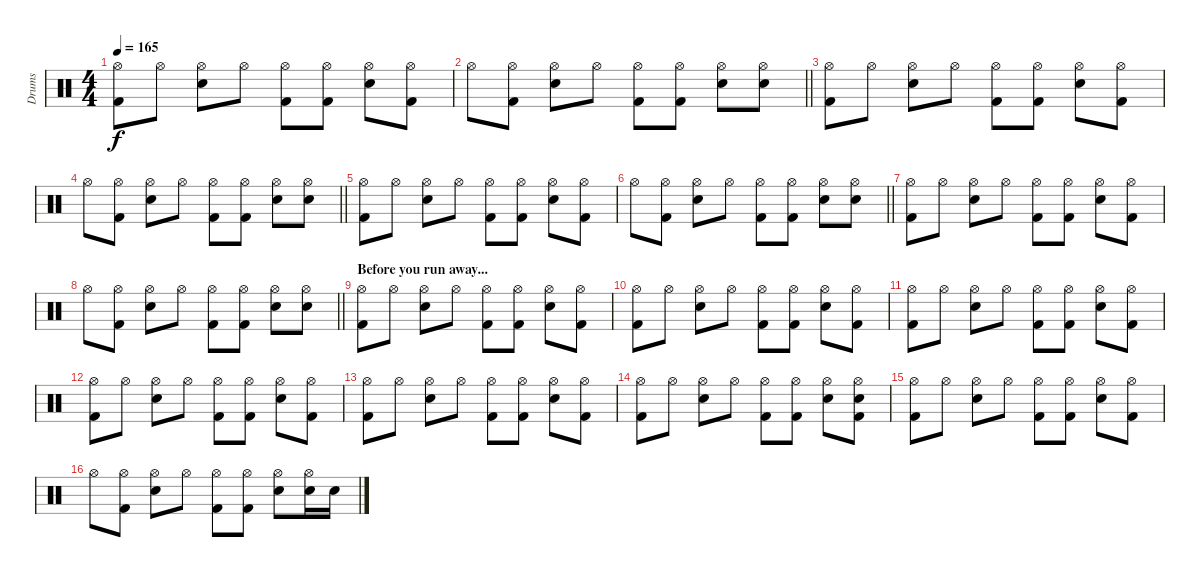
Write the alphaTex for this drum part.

\track ("Drums" "Drums") {instrument percussion}
\staff {score}
\articulation defaults
\ts (4 4)
\tempo 165
\clef neutral
\ks c
("Hi-Hat (open)" "Kick (hit) 2").8{dy f} "Hi-Hat (open)".8 ("Hi-Hat (open)" "Electric Snare (hit)").8 "Hi-Hat (open)".8 ("Hi-Hat (open)" "Kick (hit) 2").8 ("Hi-Hat (open)" "Kick (hit) 2").8 ("Hi-Hat (open)" "Electric Snare (hit)").8 ("Hi-Hat (open)" "Kick (hit) 2").8 |
\barLineRight lightlight "Hi-Hat (open)".8
("Hi-Hat (open)" "Kick (hit) 2").8 ("Hi-Hat (open)" "Electric Snare (hit)").8 "Hi-Hat (open)".8 ("Hi-Hat (open)" "Kick (hit) 2").8 ("Hi-Hat (open)" "Kick (hit) 2").8 ("Hi-Hat (open)" "Electric Snare (hit)").8 ("Hi-Hat (open)" "Electric Snare (hit)").8 |
("Hi-Hat (open)" "Kick (hit) 2").8 "Hi-Hat (open)".8 ("Hi-Hat (open)" "Electric Snare (hit)").8 "Hi-Hat (open)".8 ("Hi-Hat (open)" "Kick (hit) 2").8 ("Hi-Hat (open)" "Kick (hit) 2").8 ("Hi-Hat (open)" "Electric Snare (hit)").8 ("Hi-Hat (open)" "Kick (hit) 2").8 |
\barLineRight lightlight "Hi-Hat (open)".8
("Hi-Hat (open)" "Kick (hit) 2").8 ("Hi-Hat (open)" "Electric Snare (hit)").8 "Hi-Hat (open)".8 ("Hi-Hat (open)" "Kick (hit) 2").8 ("Hi-Hat (open)" "Kick (hit) 2").8 ("Hi-Hat (open)" "Electric Snare (hit)").8 ("Hi-Hat (open)" "Electric Snare (hit)").8 |
("Hi-Hat (open)" "Kick (hit) 2").8 "Hi-Hat (open)".8 ("Hi-Hat (open)" "Electric Snare (hit)").8 "Hi-Hat (open)".8 ("Hi-Hat (open)" "Kick (hit) 2").8 ("Hi-Hat (open)" "Kick (hit) 2").8 ("Hi-Hat (open)" "Electric Snare (hit)").8 ("Hi-Hat (open)" "Kick (hit) 2").8 |
\barLineRight lightlight "Hi-Hat (open)".8
("Hi-Hat (open)" "Kick (hit) 2").8 ("Hi-Hat (open)" "Electric Snare (hit)").8 "Hi-Hat (open)".8 ("Hi-Hat (open)" "Kick (hit) 2").8 ("Hi-Hat (open)" "Kick (hit) 2").8 ("Hi-Hat (open)" "Electric Snare (hit)").8 ("Hi-Hat (open)" "Electric Snare (hit)").8 |
("Hi-Hat (open)" "Kick (hit) 2").8 "Hi-Hat (open)".8 ("Hi-Hat (open)" "Electric Snare (hit)").8 "Hi-Hat (open)".8 ("Hi-Hat (open)" "Kick (hit) 2").8 ("Hi-Hat (open)" "Kick (hit) 2").8 ("Hi-Hat (open)" "Electric Snare (hit)").8 ("Hi-Hat (open)" "Kick (hit) 2").8 |
\barLineRight lightlight "Hi-Hat (open)".8
("Hi-Hat (open)" "Kick (hit) 2").8 ("Hi-Hat (open)" "Electric Snare (hit)").8 "Hi-Hat (open)".8 ("Hi-Hat (open)" "Kick (hit) 2").8 ("Hi-Hat (open)" "Kick (hit) 2").8 ("Hi-Hat (open)" "Electric Snare (hit)").8 ("Hi-Hat (open)" "Electric Snare (hit)").8 |
\section ("" "Before you run away...")
("Hi-Hat (open)" "Kick (hit) 2").8 "Hi-Hat (open)".8 ("Hi-Hat (open)" "Electric Snare (hit)").8 "Hi-Hat (open)".8 ("Hi-Hat (open)" "Kick (hit) 2").8 ("Hi-Hat (open)" "Kick (hit) 2").8 ("Hi-Hat (open)" "Electric Snare (hit)").8 ("Hi-Hat (open)" "Kick (hit) 2").8 |
("Hi-Hat (open)" "Kick (hit) 2").8 "Hi-Hat (open)".8 ("Hi-Hat (open)" "Electric Snare (hit)").8 "Hi-Hat (open)".8 ("Hi-Hat (open)" "Kick (hit) 2").8 ("Hi-Hat (open)" "Kick (hit) 2").8 ("Hi-Hat (open)" "Electric Snare (hit)").8 ("Hi-Hat (open)" "Kick (hit) 2").8 |
("Hi-Hat (open)" "Kick (hit) 2").8 "Hi-Hat (open)".8 ("Hi-Hat (open)" "Electric Snare (hit)").8 "Hi-Hat (open)".8 ("Hi-Hat (open)" "Kick (hit) 2").8 ("Hi-Hat (open)" "Kick (hit) 2").8 ("Hi-Hat (open)" "Electric Snare (hit)").8 ("Hi-Hat (open)" "Kick (hit) 2").8 |
("Hi-Hat (open)" "Kick (hit) 2").8 "Hi-Hat (open)".8 ("Hi-Hat (open)" "Electric Snare (hit)").8 "Hi-Hat (open)".8 ("Hi-Hat (open)" "Kick (hit) 2").8 ("Hi-Hat (open)" "Kick (hit) 2").8 ("Hi-Hat (open)" "Electric Snare (hit)").8 ("Hi-Hat (open)" "Kick (hit) 2").8 |
("Hi-Hat (open)" "Kick (hit) 2").8 "Hi-Hat (open)".8 ("Hi-Hat (open)" "Electric Snare (hit)").8 "Hi-Hat (open)".8 ("Hi-Hat (open)" "Kick (hit) 2").8 ("Hi-Hat (open)" "Kick (hit) 2").8 ("Hi-Hat (open)" "Electric Snare (hit)").8 ("Hi-Hat (open)" "Kick (hit) 2").8 |
("Hi-Hat (open)" "Kick (hit) 2").8 "Hi-Hat (open)".8 ("Hi-Hat (open)" "Electric Snare (hit)").8 "Hi-Hat (open)".8 ("Hi-Hat (open)" "Kick (hit) 2").8 ("Hi-Hat (open)" "Kick (hit) 2").8 ("Hi-Hat (open)" "Electric Snare (hit)").8 ("Hi-Hat (open)" "Electric Snare (hit)" "Kick (hit) 2").8 |
("Hi-Hat (open)" "Kick (hit) 2").8 "Hi-Hat (open)".8 ("Hi-Hat (open)" "Electric Snare (hit)").8 "Hi-Hat (open)".8 ("Hi-Hat (open)" "Kick (hit) 2").8 ("Hi-Hat (open)" "Kick (hit) 2").8 ("Hi-Hat (open)" "Electric Snare (hit)").8 ("Hi-Hat (open)" "Kick (hit) 2").8 |
"Hi-Hat (open)".8 ("Hi-Hat (open)" "Kick (hit) 2").8 ("Hi-Hat (open)" "Electric Snare (hit)").8 "Hi-Hat (open)".8 ("Hi-Hat (open)" "Kick (hit) 2").8 ("Hi-Hat (open)" "Kick (hit) 2").8 ("Hi-Hat (open)" "Electric Snare (hit)").8 ("Hi-Hat (open)" "Electric Snare (hit)").16 "Electric Snare (hit)".16
